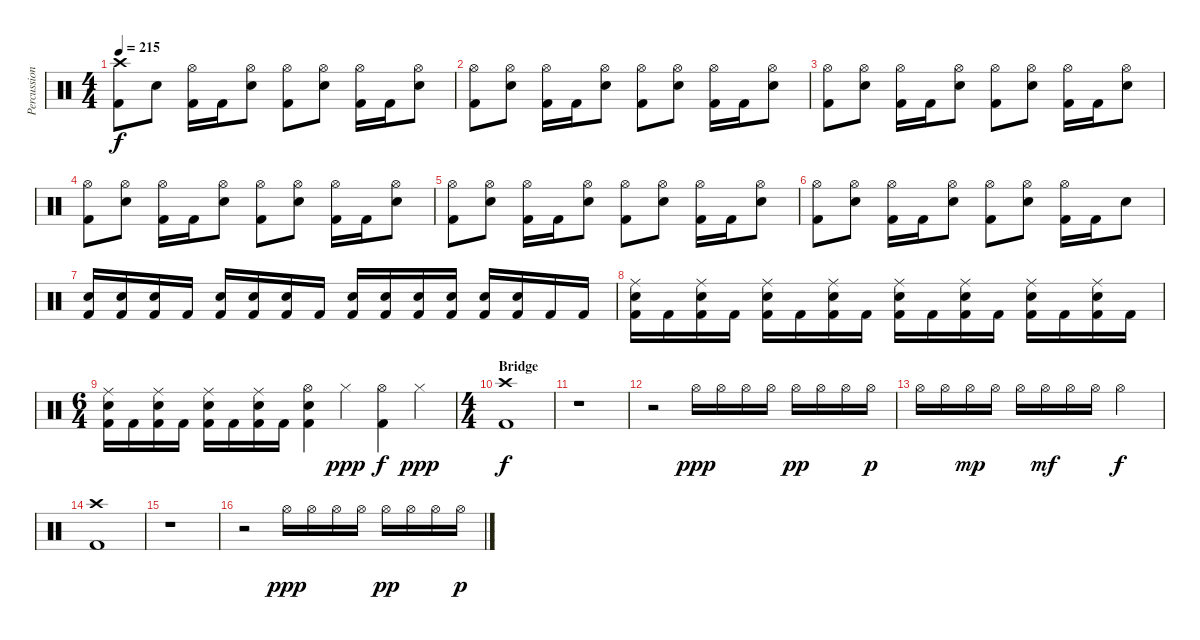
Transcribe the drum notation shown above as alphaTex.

\track ("Percussion" "Percussion") {instrument percussion}
\staff {score}
\articulation defaults
\ts (4 4)
\tempo 215
\clef neutral
\ks c
("Crash high (hit)" "Kick (hit) 2").8{dy f} "Snare (hit) 2".8 ("Hi-Hat (open)" "Kick (hit) 2").16 "Kick (hit) 2".16 ("Hi-Hat (open)" "Snare (hit) 2").8 ("Hi-Hat (open)" "Kick (hit) 2").8 ("Hi-Hat (open)" "Snare (hit) 2").8 ("Hi-Hat (open)" "Kick (hit) 2").16 "Kick (hit) 2".16 ("Hi-Hat (open)" "Snare (hit) 2").8 |
("Hi-Hat (open)" "Kick (hit) 2").8 ("Hi-Hat (open)" "Snare (hit) 2").8 ("Hi-Hat (open)" "Kick (hit) 2").16 "Kick (hit) 2".16 ("Hi-Hat (open)" "Snare (hit) 2").8 ("Hi-Hat (open)" "Kick (hit) 2").8 ("Hi-Hat (open)" "Snare (hit) 2").8 ("Hi-Hat (open)" "Kick (hit) 2").16 "Kick (hit) 2".16 ("Hi-Hat (open)" "Snare (hit) 2").8 |
("Hi-Hat (open)" "Kick (hit) 2").8 ("Hi-Hat (open)" "Snare (hit) 2").8 ("Hi-Hat (open)" "Kick (hit) 2").16 "Kick (hit) 2".16 ("Hi-Hat (open)" "Snare (hit) 2").8 ("Hi-Hat (open)" "Kick (hit) 2").8 ("Hi-Hat (open)" "Snare (hit) 2").8 ("Hi-Hat (open)" "Kick (hit) 2").16 "Kick (hit) 2".16 ("Hi-Hat (open)" "Snare (hit) 2").8 |
("Hi-Hat (open)" "Kick (hit) 2").8 ("Hi-Hat (open)" "Snare (hit) 2").8 ("Hi-Hat (open)" "Kick (hit) 2").16 "Kick (hit) 2".16 ("Hi-Hat (open)" "Snare (hit) 2").8 ("Hi-Hat (open)" "Kick (hit) 2").8 ("Hi-Hat (open)" "Snare (hit) 2").8 ("Hi-Hat (open)" "Kick (hit) 2").16 "Kick (hit) 2".16 ("Hi-Hat (open)" "Snare (hit) 2").8 |
("Hi-Hat (open)" "Kick (hit) 2").8 ("Hi-Hat (open)" "Snare (hit) 2").8 ("Hi-Hat (open)" "Kick (hit) 2").16 "Kick (hit) 2".16 ("Hi-Hat (open)" "Snare (hit) 2").8 ("Hi-Hat (open)" "Kick (hit) 2").8 ("Hi-Hat (open)" "Snare (hit) 2").8 ("Hi-Hat (open)" "Kick (hit) 2").16 "Kick (hit) 2".16 ("Hi-Hat (open)" "Snare (hit) 2").8 |
("Hi-Hat (open)" "Kick (hit) 2").8 ("Hi-Hat (open)" "Snare (hit) 2").8 ("Hi-Hat (open)" "Kick (hit) 2").16 "Kick (hit) 2".16 ("Hi-Hat (open)" "Snare (hit) 2").8 ("Hi-Hat (open)" "Kick (hit) 2").8 ("Hi-Hat (open)" "Snare (hit) 2").8 ("Hi-Hat (open)" "Kick (hit) 2").16 "Kick (hit) 2".16 "Snare (hit) 2".8 |
("Snare (hit) 2" "Kick (hit) 2").16 ("Snare (hit) 2" "Kick (hit) 2").16 ("Snare (hit) 2" "Kick (hit) 2").16 "Kick (hit) 2".16 ("Snare (hit) 2" "Kick (hit) 2").16 ("Snare (hit) 2" "Kick (hit) 2").16 ("Snare (hit) 2" "Kick (hit) 2").16 "Kick (hit) 2".16 ("Snare (hit) 2" "Kick (hit) 2").16 ("Snare (hit) 2" "Kick (hit) 2").16 ("Snare (hit) 2" "Kick (hit) 2").16 ("Snare (hit) 2" "Kick (hit) 2").16 ("Snare (hit) 2" "Kick (hit) 2").16 ("Snare (hit) 2" "Kick (hit) 2").16 "Kick (hit) 2".16 "Kick (hit) 2".16 |
("Ride (middle)" "Snare (hit) 2" "Kick (hit) 2").16 "Kick (hit) 2".16 ("Ride (middle)" "Snare (hit) 2" "Kick (hit) 2").16 "Kick (hit) 2".16 ("Ride (middle)" "Snare (hit) 2" "Kick (hit) 2").16 "Kick (hit) 2".16 ("Ride (middle)" "Snare (hit) 2" "Kick (hit) 2").16 "Kick (hit) 2".16 ("Ride (middle)" "Snare (hit) 2" "Kick (hit) 2").16 "Kick (hit) 2".16 ("Ride (middle)" "Snare (hit) 2" "Kick (hit) 2").16 "Kick (hit) 2".16 ("Ride (middle)" "Snare (hit) 2" "Kick (hit) 2").16 "Kick (hit) 2".16 ("Ride (middle)" "Snare (hit) 2" "Kick (hit) 2").16 "Kick (hit) 2".16 |
\ts (6 4)
("Ride (middle)" "Snare (hit) 2" "Kick (hit) 2").16 "Kick (hit) 2".16 ("Ride (middle)" "Snare (hit) 2" "Kick (hit) 2").16 "Kick (hit) 2".16 ("Ride (middle)" "Snare (hit) 2" "Kick (hit) 2").16 "Kick (hit) 2".16 ("Ride (middle)" "Snare (hit) 2" "Kick (hit) 2").16 "Kick (hit) 2".16 ("Hi-Hat (open)" "Snare (hit) 2" "Kick (hit) 2").4 "Hi-Hat (closed)".4{dy ppp} ("Hi-Hat (open)" "Kick (hit) 2").4{dy f} "Hi-Hat (closed)".4{dy ppp} |
\ts (4 4)
\section ("" "Bridge")
("Crash high (hit)" "Kick (hit) 2").1{dy f} |
r.1 |
r.2 "Hi-Hat (open)".16{dy ppp} "Hi-Hat (open)".16 "Hi-Hat (open)".16 "Hi-Hat (open)".16 "Hi-Hat (open)".16{dy pp} "Hi-Hat (open)".16 "Hi-Hat (open)".16 "Hi-Hat (open)".16{dy p} |
"Hi-Hat (open)".16 "Hi-Hat (open)".16 "Hi-Hat (open)".16{dy mp} "Hi-Hat (open)".16 "Hi-Hat (open)".16 "Hi-Hat (open)".16{dy mf} "Hi-Hat (open)".16 "Hi-Hat (open)".16 "Hi-Hat (open)".2{dy f} |
("Crash high (hit)" "Kick (hit) 2").1 |
r.1 |
r.2 "Hi-Hat (open)".16{dy ppp} "Hi-Hat (open)".16 "Hi-Hat (open)".16 "Hi-Hat (open)".16 "Hi-Hat (open)".16{dy pp} "Hi-Hat (open)".16 "Hi-Hat (open)".16 "Hi-Hat (open)".16{dy p}
